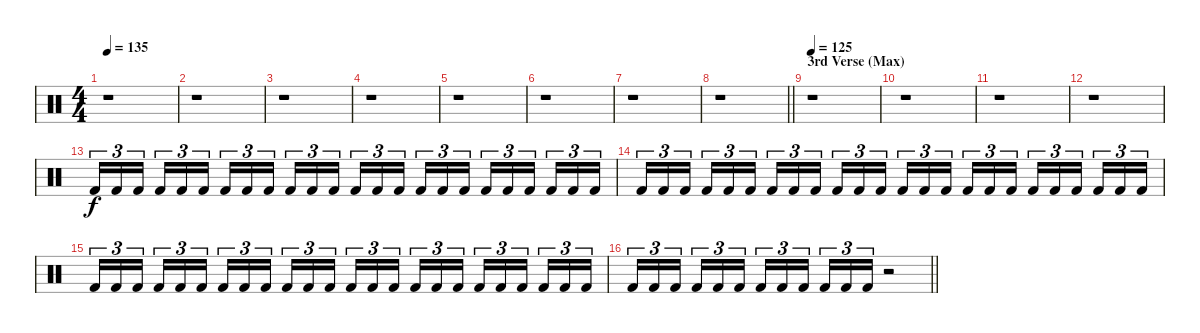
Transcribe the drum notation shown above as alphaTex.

\track "" {instrument percussion}
\staff {score}
\articulation defaults
\ts (4 4)
\tempo 135
\clef neutral
\ks c
r.1{dy f} |
r.1 |
r.1 |
r.1 |
r.1 |
r.1 |
r.1 |
\barLineRight lightlight
r.1 |
\section ("" "3rd Verse (Max)")
\tempo 125
r.1 |
r.1 |
r.1 |
r.1 |
"Kick (hit) 2".16{tu (3 2)} "Kick (hit) 2".16{tu (3 2)} "Kick (hit) 2".16{tu (3 2) beam splitsecondary} "Kick (hit) 2".16{tu (3 2)} "Kick (hit) 2".16{tu (3 2)} "Kick (hit) 2".16{tu (3 2)} "Kick (hit) 2".16{tu (3 2)} "Kick (hit) 2".16{tu (3 2)} "Kick (hit) 2".16{tu (3 2) beam splitsecondary} "Kick (hit) 2".16{tu (3 2)} "Kick (hit) 2".16{tu (3 2)} "Kick (hit) 2".16{tu (3 2)} "Kick (hit) 2".16{tu (3 2)} "Kick (hit) 2".16{tu (3 2)} "Kick (hit) 2".16{tu (3 2) beam splitsecondary} "Kick (hit) 2".16{tu (3 2)} "Kick (hit) 2".16{tu (3 2)} "Kick (hit) 2".16{tu (3 2)} "Kick (hit) 2".16{tu (3 2)} "Kick (hit) 2".16{tu (3 2)} "Kick (hit) 2".16{tu (3 2) beam splitsecondary} "Kick (hit) 2".16{tu (3 2)} "Kick (hit) 2".16{tu (3 2)} "Kick (hit) 2".16{tu (3 2)} |
"Kick (hit) 2".16{tu (3 2)} "Kick (hit) 2".16{tu (3 2)} "Kick (hit) 2".16{tu (3 2) beam splitsecondary} "Kick (hit) 2".16{tu (3 2)} "Kick (hit) 2".16{tu (3 2)} "Kick (hit) 2".16{tu (3 2)} "Kick (hit) 2".16{tu (3 2)} "Kick (hit) 2".16{tu (3 2)} "Kick (hit) 2".16{tu (3 2) beam splitsecondary} "Kick (hit) 2".16{tu (3 2)} "Kick (hit) 2".16{tu (3 2)} "Kick (hit) 2".16{tu (3 2)} "Kick (hit) 2".16{tu (3 2)} "Kick (hit) 2".16{tu (3 2)} "Kick (hit) 2".16{tu (3 2) beam splitsecondary} "Kick (hit) 2".16{tu (3 2)} "Kick (hit) 2".16{tu (3 2)} "Kick (hit) 2".16{tu (3 2)} "Kick (hit) 2".16{tu (3 2)} "Kick (hit) 2".16{tu (3 2)} "Kick (hit) 2".16{tu (3 2) beam splitsecondary} "Kick (hit) 2".16{tu (3 2)} "Kick (hit) 2".16{tu (3 2)} "Kick (hit) 2".16{tu (3 2)} |
"Kick (hit) 2".16{tu (3 2)} "Kick (hit) 2".16{tu (3 2)} "Kick (hit) 2".16{tu (3 2) beam splitsecondary} "Kick (hit) 2".16{tu (3 2)} "Kick (hit) 2".16{tu (3 2)} "Kick (hit) 2".16{tu (3 2)} "Kick (hit) 2".16{tu (3 2)} "Kick (hit) 2".16{tu (3 2)} "Kick (hit) 2".16{tu (3 2) beam splitsecondary} "Kick (hit) 2".16{tu (3 2)} "Kick (hit) 2".16{tu (3 2)} "Kick (hit) 2".16{tu (3 2)} "Kick (hit) 2".16{tu (3 2)} "Kick (hit) 2".16{tu (3 2)} "Kick (hit) 2".16{tu (3 2) beam splitsecondary} "Kick (hit) 2".16{tu (3 2)} "Kick (hit) 2".16{tu (3 2)} "Kick (hit) 2".16{tu (3 2)} "Kick (hit) 2".16{tu (3 2)} "Kick (hit) 2".16{tu (3 2)} "Kick (hit) 2".16{tu (3 2) beam splitsecondary} "Kick (hit) 2".16{tu (3 2)} "Kick (hit) 2".16{tu (3 2)} "Kick (hit) 2".16{tu (3 2)} |
\barLineRight lightlight "Kick (hit) 2".16{tu (3 2)} "Kick (hit) 2".16{tu (3 2)} "Kick (hit) 2".16{tu (3 2) beam splitsecondary} "Kick (hit) 2".16{tu (3 2)} "Kick (hit) 2".16{tu (3 2)} "Kick (hit) 2".16{tu (3 2)} "Kick (hit) 2".16{tu (3 2)} "Kick (hit) 2".16{tu (3 2)} "Kick (hit) 2".16{tu (3 2) beam splitsecondary} "Kick (hit) 2".16{tu (3 2)} "Kick (hit) 2".16{tu (3 2)} "Kick (hit) 2".16{tu (3 2)}
r.2
